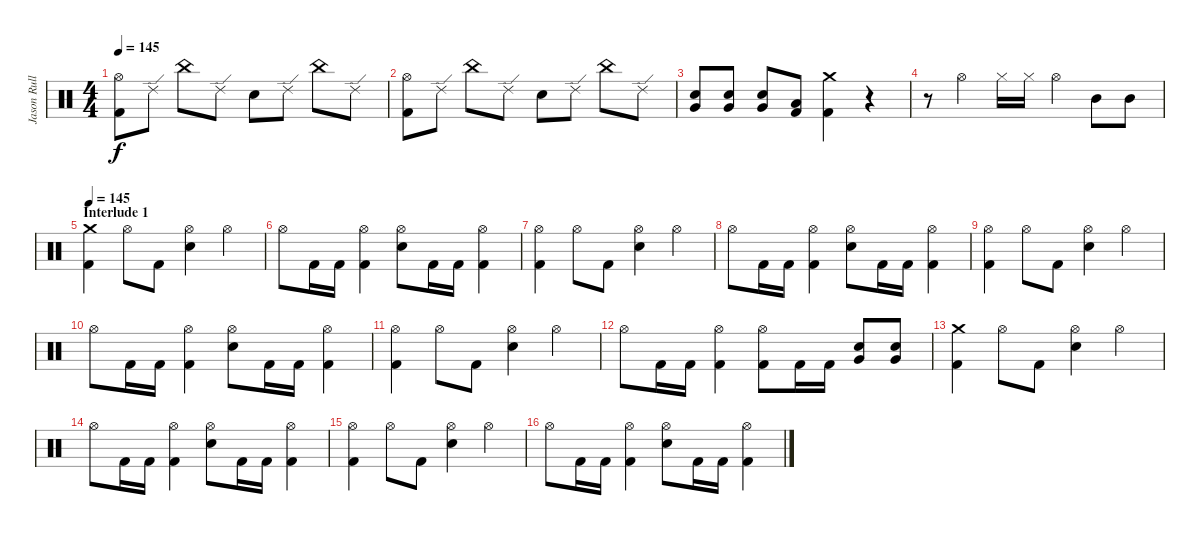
\track ("Jason Rullo" "Jason Rull") {instrument percussion}
\staff {score}
\articulation defaults
\ts (4 4)
\tempo 145
\clef neutral
\ks c
("Hi-Hat (open)" "Kick (hit) 2").8{dy f} "Ride (edge) 2".8 "China (hit)".8 "Ride (edge) 2".8 "Electric Snare (hit)".8 "Ride (edge) 2".8 "China (hit)".8 "Ride (edge) 2".8 |
("Hi-Hat (open)" "Kick (hit) 2").8 "Ride (edge) 2".8 "China (hit)".8 "Ride (edge) 2".8 "Electric Snare (hit)".8 "Ride (edge) 2".8 "China (hit)".8 "Ride (edge) 2".8 |
("Very Low Tom (hit)" "Electric Snare (hit)").8 ("Very Low Tom (hit)" "Electric Snare (hit)").8 ("Very Low Tom (hit)" "Electric Snare (hit)").8 ("Low Floor Tom (hit)" "Kick (hit) 2").8 ("Crash medium (hit)" "Kick (hit) 2").4 r.4 |
r.8 "Hi-Hat (open)".4 "Hi-Hat (closed)".16 "Hi-Hat (closed)".16 "Hi-Hat (open)".4 "Mid Tom (hit)".8 "Mid Tom (hit)".8 |
\section ("" "Interlude 1")
\tempo 145
("Crash medium (hit)" "Kick (hit) 2").4 "Hi-Hat (open)".8 "Kick (hit) 2".8 ("Hi-Hat (open)" "Electric Snare (hit)").4 "Hi-Hat (open)".4 |
"Hi-Hat (open)".8 "Kick (hit) 2".16 "Kick (hit) 2".16 ("Hi-Hat (open)" "Kick (hit) 2").4 ("Electric Snare (hit)" "Hi-Hat (open)").8 "Kick (hit) 2".16 "Kick (hit) 2".16 ("Kick (hit) 2" "Hi-Hat (open)").4 |
("Hi-Hat (open)" "Kick (hit) 2").4 "Hi-Hat (open)".8 "Kick (hit) 2".8 ("Hi-Hat (open)" "Electric Snare (hit)").4 "Hi-Hat (open)".4 |
"Hi-Hat (open)".8 "Kick (hit) 2".16 "Kick (hit) 2".16 ("Hi-Hat (open)" "Kick (hit) 2").4 ("Electric Snare (hit)" "Hi-Hat (open)").8 "Kick (hit) 2".16 "Kick (hit) 2".16 ("Kick (hit) 2" "Hi-Hat (open)").4 |
("Hi-Hat (open)" "Kick (hit) 2").4 "Hi-Hat (open)".8 "Kick (hit) 2".8 ("Hi-Hat (open)" "Electric Snare (hit)").4 "Hi-Hat (open)".4 |
"Hi-Hat (open)".8 "Kick (hit) 2".16 "Kick (hit) 2".16 ("Hi-Hat (open)" "Kick (hit) 2").4 ("Electric Snare (hit)" "Hi-Hat (open)").8 "Kick (hit) 2".16 "Kick (hit) 2".16 ("Kick (hit) 2" "Hi-Hat (open)").4 |
("Hi-Hat (open)" "Kick (hit) 2").4 "Hi-Hat (open)".8 "Kick (hit) 2".8 ("Hi-Hat (open)" "Electric Snare (hit)").4 "Hi-Hat (open)".4 |
"Hi-Hat (open)".8 "Kick (hit) 2".16 "Kick (hit) 2".16 ("Hi-Hat (open)" "Kick (hit) 2").4 ("Kick (hit) 2" "Hi-Hat (open)").8 "Kick (hit) 2".16 "Kick (hit) 2".16 ("Very Low Tom (hit)" "Electric Snare (hit)").8 ("Very Low Tom (hit)" "Electric Snare (hit)").8 |
("Crash medium (hit)" "Kick (hit) 2").4 "Hi-Hat (open)".8 "Kick (hit) 2".8 ("Hi-Hat (open)" "Electric Snare (hit)").4 "Hi-Hat (open)".4 |
"Hi-Hat (open)".8 "Kick (hit) 2".16 "Kick (hit) 2".16 ("Hi-Hat (open)" "Kick (hit) 2").4 ("Electric Snare (hit)" "Hi-Hat (open)").8 "Kick (hit) 2".16 "Kick (hit) 2".16 ("Kick (hit) 2" "Hi-Hat (open)").4 |
("Hi-Hat (open)" "Kick (hit) 2").4 "Hi-Hat (open)".8 "Kick (hit) 2".8 ("Hi-Hat (open)" "Electric Snare (hit)").4 "Hi-Hat (open)".4 |
"Hi-Hat (open)".8 "Kick (hit) 2".16 "Kick (hit) 2".16 ("Hi-Hat (open)" "Kick (hit) 2").4 ("Electric Snare (hit)" "Hi-Hat (open)").8 "Kick (hit) 2".16 "Kick (hit) 2".16 ("Kick (hit) 2" "Hi-Hat (open)").4
